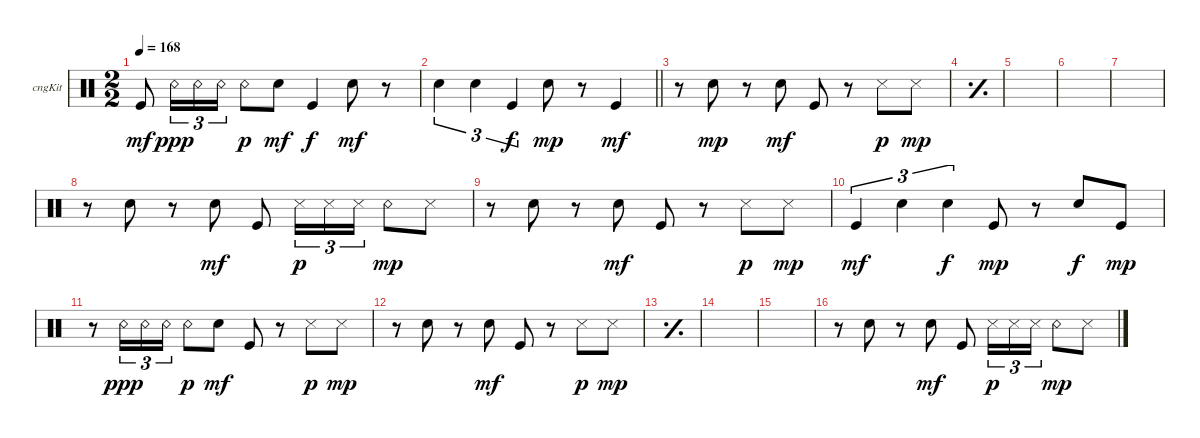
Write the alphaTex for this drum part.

\bracketExtendMode groupsimilarinstruments
\multiTrackTrackNamePolicy hidden
\firstSystemTrackNameOrientation horizontal
\otherSystemsTrackNameOrientation horizontal
\track ("Congas" "cngKit") {instrument percussion}
\staff {score}
\articulation defaults
\ts (2 2)
\tempo 168
\clef neutral
\ks c "Kick (hit)".8{dy mf} "Snare (rim shot)".16{tu (3 2) dy ppp} "Snare (rim shot)".16{tu (3 2)} "Snare (rim shot)".16{tu (3 2)} "Snare (rim shot)".8{dy p} "Snare (hit) 2".8{dy mf} "Kick (hit)".4{dy f} "Snare (hit) 2".8{dy mf}
r.8 |
\barLineRight lightlight "Snare (hit) 2".4{tu (3 2)} "Snare (hit) 2".4{tu (3 2)} "Kick (hit)".4{tu (3 2) dy f} "Snare (hit) 2".8{dy mp}
r.8 "Kick (hit)".4{dy mf} |
r.8 "Snare (hit) 2".8{dy mp} r.8 "Snare (hit) 2".8{dy mf} "Kick (hit)".8 r.8 "Snare (side stick) 3".8{dy p} "Snare (side stick) 3".8{dy mp} |
\simile simple
|
|
|
|
\simile none
r.8 "Snare (hit) 2".8 r.8 "Snare (hit) 2".8{dy mf} "Kick (hit)".8 "Snare (side stick) 3".16{tu (3 2) dy p} "Snare (side stick) 3".16{tu (3 2)} "Snare (side stick) 3".16{tu (3 2)} "Snare (rim shot)".8{dy mp} "Snare (side stick) 3".8 |
r.8 "Snare (hit) 2".8 r.8 "Snare (hit) 2".8{dy mf} "Kick (hit)".8 r.8 "Snare (side stick) 3".8{dy p} "Snare (side stick) 3".8{dy mp} |
"Kick (hit)".4{tu (3 2) dy mf} "Snare (hit) 2".4{tu (3 2)} "Snare (hit) 2".4{tu (3 2) dy f} "Kick (hit)".8{dy mp} r.8 "Snare (hit) 2".8{dy f} "Kick (hit)".8{dy mp} |
r.8 "Snare (rim shot)".16{tu (3 2) dy ppp} "Snare (rim shot)".16{tu (3 2)} "Snare (rim shot)".16{tu (3 2)} "Snare (rim shot)".8{dy p} "Snare (hit) 2".8{dy mf} "Kick (hit)".8 r.8 "Snare (side stick) 3".8{dy p} "Snare (side stick) 3".8{dy mp} |
r.8 "Snare (hit) 2".8 r.8 "Snare (hit) 2".8{dy mf} "Kick (hit)".8 r.8 "Snare (side stick) 3".8{dy p} "Snare (side stick) 3".8{dy mp} |
\simile simple
|
|
|
\simile none
r.8 "Snare (hit) 2".8 r.8 "Snare (hit) 2".8{dy mf} "Kick (hit)".8 "Snare (side stick) 3".16{tu (3 2) dy p} "Snare (side stick) 3".16{tu (3 2)} "Snare (side stick) 3".16{tu (3 2)} "Snare (rim shot)".8{dy mp} "Snare (side stick) 3".8
